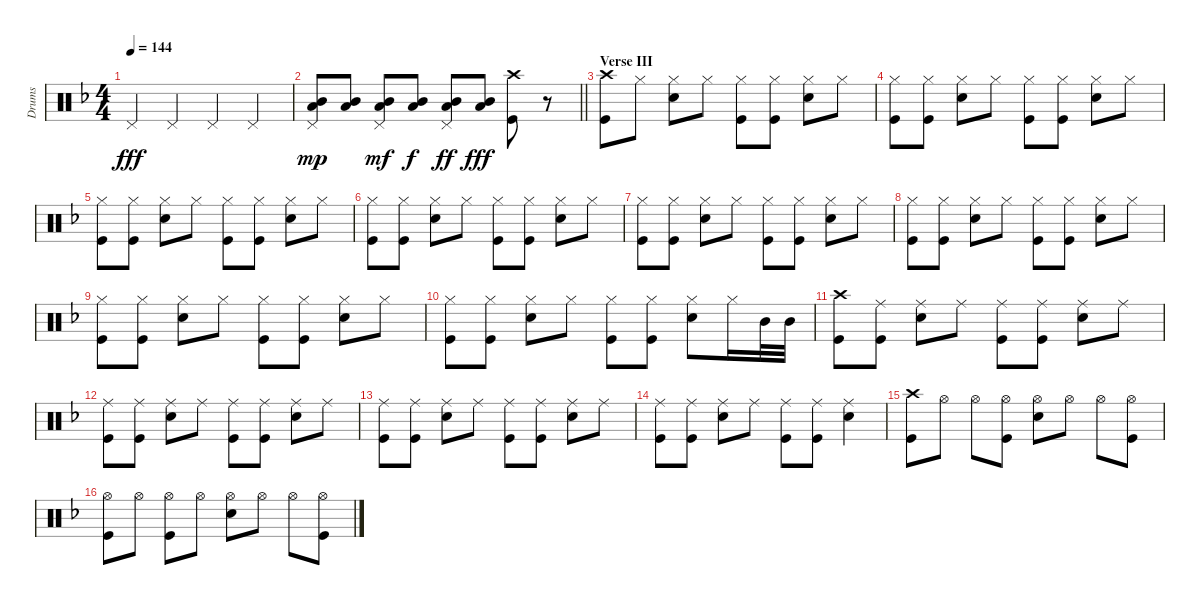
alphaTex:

\track ("Drums" "Drums") {instrument percussion}
\staff {score}
\articulation defaults
\ts (4 4)
\tempo 144
\clef neutral
\ks f "Pedal Hi-Hat (hit)".4{dy fff} "Pedal Hi-Hat (hit)".4 "Pedal Hi-Hat (hit)".4 "Pedal Hi-Hat (hit)".4
|
\barLineRight lightlight
("Pedal Hi-Hat (hit)" "Mid Tom (hit)" "Low Tom (hit)").8{dy mp} ("Mid Tom (hit)" "Low Tom (hit)").8 ("Pedal Hi-Hat (hit)" "Mid Tom (hit)" "Low Tom (hit)").8{dy mf} ("Mid Tom (hit)" "Low Tom (hit)").8{dy f} ("Pedal Hi-Hat (hit)" "Mid Tom (hit)" "Low Tom (hit)").8{dy ff} ("Mid Tom (hit)" "Low Tom (hit)").8{dy fff} ("Crash high (hit)" "Kick (hit)").8 r.8 |
\section ("" "Verse III")
("Crash high (hit)" "Kick (hit)").8 "Hi-Hat (closed)".8 ("Hi-Hat (closed)" "Snare (hit) 2").8 "Hi-Hat (closed)".8 ("Hi-Hat (closed)" "Kick (hit)").8 ("Hi-Hat (closed)" "Kick (hit)").8 ("Hi-Hat (closed)" "Snare (hit) 2").8 "Hi-Hat (closed)".8 |
("Hi-Hat (closed)" "Kick (hit)").8 ("Hi-Hat (closed)" "Kick (hit)").8 ("Hi-Hat (closed)" "Snare (hit) 2").8 "Hi-Hat (closed)".8 ("Hi-Hat (closed)" "Kick (hit)").8 ("Hi-Hat (closed)" "Kick (hit)").8 ("Hi-Hat (closed)" "Snare (hit) 2").8 "Hi-Hat (closed)".8 |
("Hi-Hat (closed)" "Kick (hit)").8 ("Hi-Hat (closed)" "Kick (hit)").8 ("Hi-Hat (closed)" "Snare (hit) 2").8 "Hi-Hat (closed)".8 ("Hi-Hat (closed)" "Kick (hit)").8 ("Hi-Hat (closed)" "Kick (hit)").8 ("Hi-Hat (closed)" "Snare (hit) 2").8 "Hi-Hat (closed)".8 |
("Hi-Hat (closed)" "Kick (hit)").8 ("Hi-Hat (closed)" "Kick (hit)").8 ("Hi-Hat (closed)" "Snare (hit) 2").8 "Hi-Hat (closed)".8 ("Hi-Hat (closed)" "Kick (hit)").8 ("Hi-Hat (closed)" "Kick (hit)").8 ("Hi-Hat (closed)" "Snare (hit) 2").8 "Hi-Hat (closed)".8 |
("Hi-Hat (closed)" "Kick (hit)").8 ("Hi-Hat (closed)" "Kick (hit)").8 ("Hi-Hat (closed)" "Snare (hit) 2").8 "Hi-Hat (closed)".8 ("Hi-Hat (closed)" "Kick (hit)").8 ("Hi-Hat (closed)" "Kick (hit)").8 ("Hi-Hat (closed)" "Snare (hit) 2").8 "Hi-Hat (closed)".8 |
("Hi-Hat (closed)" "Kick (hit)").8 ("Hi-Hat (closed)" "Kick (hit)").8 ("Hi-Hat (closed)" "Snare (hit) 2").8 "Hi-Hat (closed)".8 ("Hi-Hat (closed)" "Kick (hit)").8 ("Hi-Hat (closed)" "Kick (hit)").8 ("Hi-Hat (closed)" "Snare (hit) 2").8 "Hi-Hat (closed)".8 |
("Hi-Hat (closed)" "Kick (hit)").8 ("Hi-Hat (closed)" "Kick (hit)").8 ("Hi-Hat (closed)" "Snare (hit) 2").8 "Hi-Hat (closed)".8 ("Hi-Hat (closed)" "Kick (hit)").8 ("Hi-Hat (closed)" "Kick (hit)").8 ("Hi-Hat (closed)" "Snare (hit) 2").8 "Hi-Hat (closed)".8 |
("Hi-Hat (closed)" "Kick (hit)").8 ("Hi-Hat (closed)" "Kick (hit)").8 ("Hi-Hat (closed)" "Snare (hit) 2").8 "Hi-Hat (closed)".8 ("Hi-Hat (closed)" "Kick (hit)").8 ("Hi-Hat (closed)" "Kick (hit)").8 ("Hi-Hat (closed)" "Snare (hit) 2").8 "Hi-Hat (closed)".16 "Mid Tom (hit)".32 "Mid Tom (hit)".32 |
("Crash high (hit)" "Kick (hit)").8 ("Ride (middle)" "Kick (hit)").8 ("Ride (middle)" "Snare (hit) 2").8 "Ride (middle)".8 ("Ride (middle)" "Kick (hit)").8 ("Ride (middle)" "Kick (hit)").8 ("Ride (middle)" "Snare (hit) 2").8 "Ride (middle)".8 |
("Ride (middle)" "Kick (hit)").8 ("Ride (middle)" "Kick (hit)").8 ("Ride (middle)" "Snare (hit) 2").8 "Ride (middle)".8 ("Ride (middle)" "Kick (hit)").8 ("Ride (middle)" "Kick (hit)").8 ("Ride (middle)" "Snare (hit) 2").8 "Ride (middle)".8 |
("Ride (middle)" "Kick (hit)").8 ("Ride (middle)" "Kick (hit)").8 ("Ride (middle)" "Snare (hit) 2").8 "Ride (middle)".8 ("Ride (middle)" "Kick (hit)").8 ("Ride (middle)" "Kick (hit)").8 ("Ride (middle)" "Snare (hit) 2").8 "Ride (middle)".8 |
("Ride (middle)" "Kick (hit)").8 ("Ride (middle)" "Kick (hit)").8 ("Ride (middle)" "Snare (hit) 2").8 "Ride (middle)".8 ("Ride (middle)" "Kick (hit)").8 ("Ride (middle)" "Kick (hit)").8 ("Ride (middle)" "Snare (hit) 2").4 |
("Crash high (hit)" "Kick (hit)").8 "Hi-Hat (open)".8 "Hi-Hat (open)".8 ("Hi-Hat (open)" "Kick (hit)").8 ("Hi-Hat (open)" "Snare (hit) 2").8 "Hi-Hat (open)".8 "Hi-Hat (open)".8 ("Hi-Hat (open)" "Kick (hit)").8 |
("Hi-Hat (open)" "Kick (hit)").8 "Hi-Hat (open)".8 ("Hi-Hat (open)" "Kick (hit)").8 "Hi-Hat (open)".8 ("Hi-Hat (open)" "Snare (hit) 2").8 "Hi-Hat (open)".8 "Hi-Hat (open)".8 ("Hi-Hat (open)" "Kick (hit)").8
